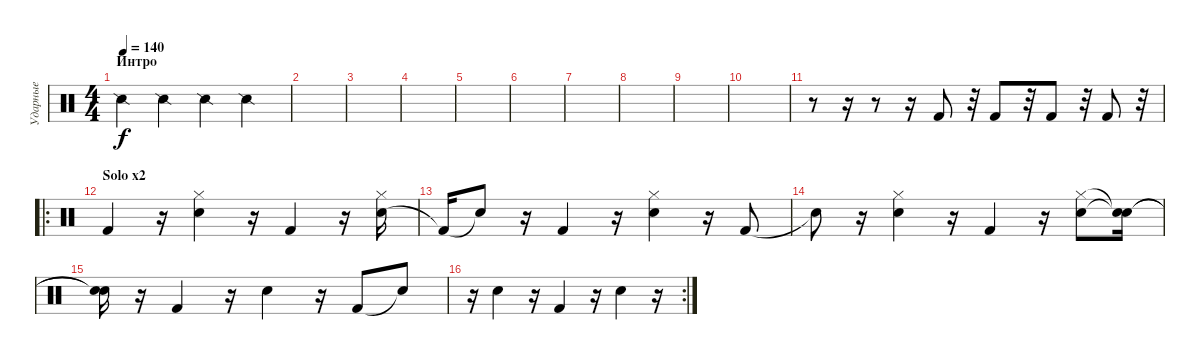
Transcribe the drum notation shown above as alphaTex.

\track ("Ударные" "Ударные") {instrument percussion}
\staff {score}
\articulation defaults
\ts (4 4)
\section ("" "Интро")
\tempo 140
\clef neutral
\ks c "Snare (side stick) 2".4{dy f} "Snare (side stick) 2".4 "Snare (side stick) 2".4 "Snare (side stick) 2".4
|
|
|
|
|
|
|
|
|
|
r.8 r.16 r.8 r.16 "Kick (hit) 2".8 r.32 "Kick (hit) 2".8 r.32 "Kick (hit) 2".8 r.32 "Kick (hit) 2".8 r.32 |
\ro
\section ("" "Solo х2")
"Kick (hit) 2".4 r.16 ("Electric Snare (hit)" "Hi-Hat (closed)").4 r.16 "Kick (hit) 2".4 r.16 ("Electric Snare (hit)" "Hi-Hat (closed)").16 |
"Kick (hit) 2"{t}.16 "Snare (hit)"{t}.8 r.16 "Kick (hit) 2".4 r.16 ("Electric Snare (hit)" "Hi-Hat (closed)").4 r.16 "Kick (hit) 2".8 |
"Snare (hit)"{t}.8 r.16 ("Electric Snare (hit)" "Hi-Hat (closed)").4 r.16 "Kick (hit) 2".4 r.16 ("Electric Snare (hit)" "Hi-Hat (closed)").8 ("Snare (hit)"{t} "Snare (hit)"{t}).16 |
("Snare (hit)"{t} "Snare (hit)"{t}).16 r.16 "Kick (hit) 2".4 r.16 "Electric Snare (hit)".4 r.16 "Kick (hit) 2".8 "Snare (hit)"{t}.8 |
\rc 2
r.16 "Electric Snare (hit)".4 r.16 "Kick (hit) 2".4 r.16 "Electric Snare (hit)".4 r.16
